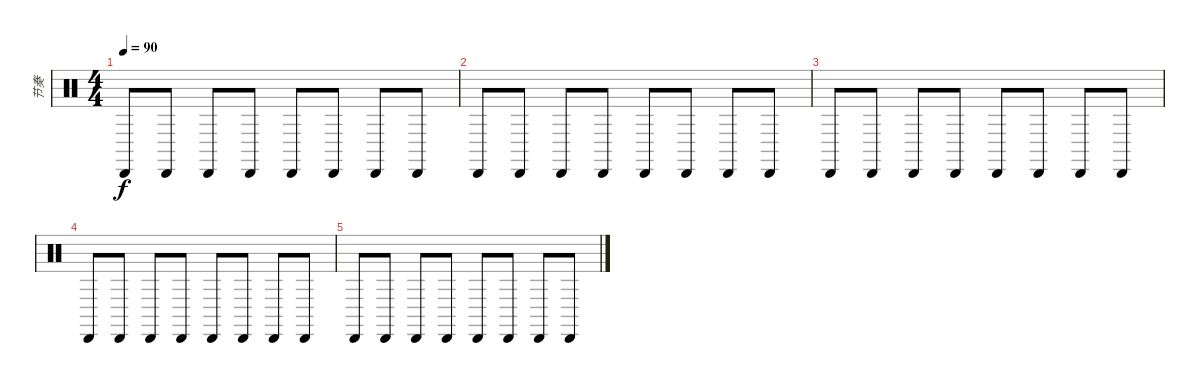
\track ("节奏" "节奏") {instrument percussion}
\staff {score}
\articulation defaults
\ts (4 4)
\tempo 90
\clef neutral
\ks c "Cabasa (hit)".8{dy f volume 6} "Cabasa (hit)".8 "Cabasa (hit)".8{volume 13} "Cabasa (hit)".8{volume 6} "Cabasa (hit)".8 "Cabasa (hit)".8 "Cabasa (hit)".8{volume 13} "Cabasa (hit)".8{volume 6}
|
"Cabasa (hit)".8{volume 6} "Cabasa (hit)".8 "Cabasa (hit)".8{volume 13} "Cabasa (hit)".8{volume 6} "Cabasa (hit)".8 "Cabasa (hit)".8 "Cabasa (hit)".8{volume 13} "Cabasa (hit)".8{volume 6} |
"Cabasa (hit)".8{volume 6} "Cabasa (hit)".8 "Cabasa (hit)".8{volume 13} "Cabasa (hit)".8{volume 6} "Cabasa (hit)".8 "Cabasa (hit)".8 "Cabasa (hit)".8{volume 13} "Cabasa (hit)".8{volume 6} |
"Cabasa (hit)".8{volume 6} "Cabasa (hit)".8 "Cabasa (hit)".8{volume 13} "Cabasa (hit)".8{volume 6} "Cabasa (hit)".8 "Cabasa (hit)".8 "Cabasa (hit)".8{volume 13} "Cabasa (hit)".8{volume 6} |
"Cabasa (hit)".8{volume 6} "Cabasa (hit)".8 "Cabasa (hit)".8{volume 13} "Cabasa (hit)".8{volume 6} "Cabasa (hit)".8 "Cabasa (hit)".8 "Cabasa (hit)".8{volume 13} "Cabasa (hit)".8{volume 6}
